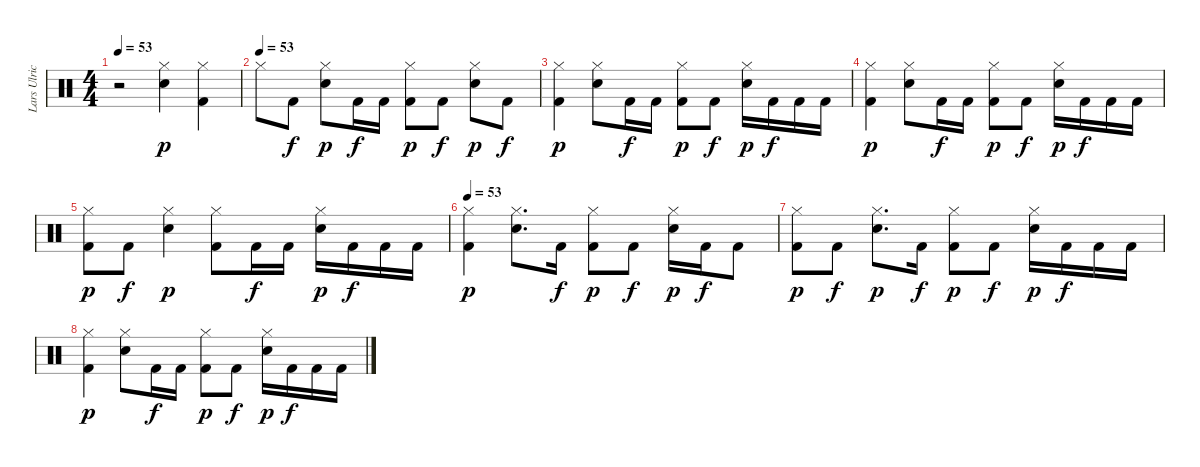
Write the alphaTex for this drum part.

\track ("Lars Ulrich" "Lars Ulric") {instrument percussion}
\staff {score}
\articulation defaults
\ts (4 4)
\tempo 53
\clef neutral
\ks c
r.2{dy p} ("Hi-Hat (closed)" "Snare (hit) 2").4{volume 4} ("Hi-Hat (closed)" "Kick (hit) 2").4 |
\tempo (53)
"Hi-Hat (closed)".8{volume 4} "Kick (hit) 2".8{dy f} ("Hi-Hat (closed)" "Snare (hit) 2").8{dy p} "Kick (hit) 2".16{dy f} "Kick (hit) 2".16 ("Hi-Hat (closed)" "Kick (hit) 2").8{dy p} "Kick (hit) 2".8{dy f volume 0} ("Hi-Hat (closed)" "Snare (hit) 2").8{dy p} "Kick (hit) 2".8{dy f} |
("Hi-Hat (closed)" "Kick (hit) 2").4{dy p volume 4} ("Hi-Hat (closed)" "Snare (hit) 2").8 "Kick (hit) 2".16{dy f} "Kick (hit) 2".16 ("Hi-Hat (closed)" "Kick (hit) 2").8{dy p} "Kick (hit) 2".8{dy f} ("Hi-Hat (closed)" "Snare (hit) 2").16{dy p} "Kick (hit) 2".16{dy f} "Kick (hit) 2".16 "Kick (hit) 2".16 |
("Hi-Hat (closed)" "Kick (hit) 2").4{dy p volume 4} ("Hi-Hat (closed)" "Snare (hit) 2").8 "Kick (hit) 2".16{dy f} "Kick (hit) 2".16 ("Hi-Hat (closed)" "Kick (hit) 2").8{dy p} "Kick (hit) 2".8{dy f} ("Hi-Hat (closed)" "Snare (hit) 2").16{dy p} "Kick (hit) 2".16{dy f} "Kick (hit) 2".16 "Kick (hit) 2".16 |
("Hi-Hat (closed)" "Kick (hit) 2").8{dy p volume 4} "Kick (hit) 2".8{dy f volume 3} ("Hi-Hat (closed)" "Snare (hit) 2").4{dy p} ("Hi-Hat (closed)" "Kick (hit) 2").8 "Kick (hit) 2".16{dy f} "Kick (hit) 2".16 ("Hi-Hat (closed)" "Snare (hit) 2").16{dy p} "Kick (hit) 2".16{dy f} "Kick (hit) 2".16 "Kick (hit) 2".16 |
\tempo 53
("Hi-Hat (closed)" "Kick (hit) 2").4{dy p volume 4} ("Hi-Hat (closed)" "Snare (hit) 2").8{d} "Kick (hit) 2".16{dy f} ("Hi-Hat (closed)" "Kick (hit) 2").8{dy p} "Kick (hit) 2".8{dy f} ("Hi-Hat (closed)" "Snare (hit) 2").16{dy p} "Kick (hit) 2".16{dy f} "Kick (hit) 2".8 |
("Hi-Hat (closed)" "Kick (hit) 2").8{dy p volume 6} "Kick (hit) 2".8{dy f} ("Hi-Hat (closed)" "Snare (hit) 2").8{d dy p} "Kick (hit) 2".16{dy f} ("Hi-Hat (closed)" "Kick (hit) 2").8{dy p} "Kick (hit) 2".8{dy f} ("Hi-Hat (closed)" "Snare (hit) 2").16{dy p} "Kick (hit) 2".16{dy f} "Kick (hit) 2".16 "Kick (hit) 2".16 |
("Hi-Hat (closed)" "Kick (hit) 2").4{dy p} ("Hi-Hat (closed)" "Snare (hit) 2").8 "Kick (hit) 2".16{dy f} "Kick (hit) 2".16 ("Hi-Hat (closed)" "Kick (hit) 2").8{dy p} "Kick (hit) 2".8{dy f} ("Hi-Hat (closed)" "Snare (hit) 2").16{dy p} "Kick (hit) 2".16{dy f} "Kick (hit) 2".16 "Kick (hit) 2".16
